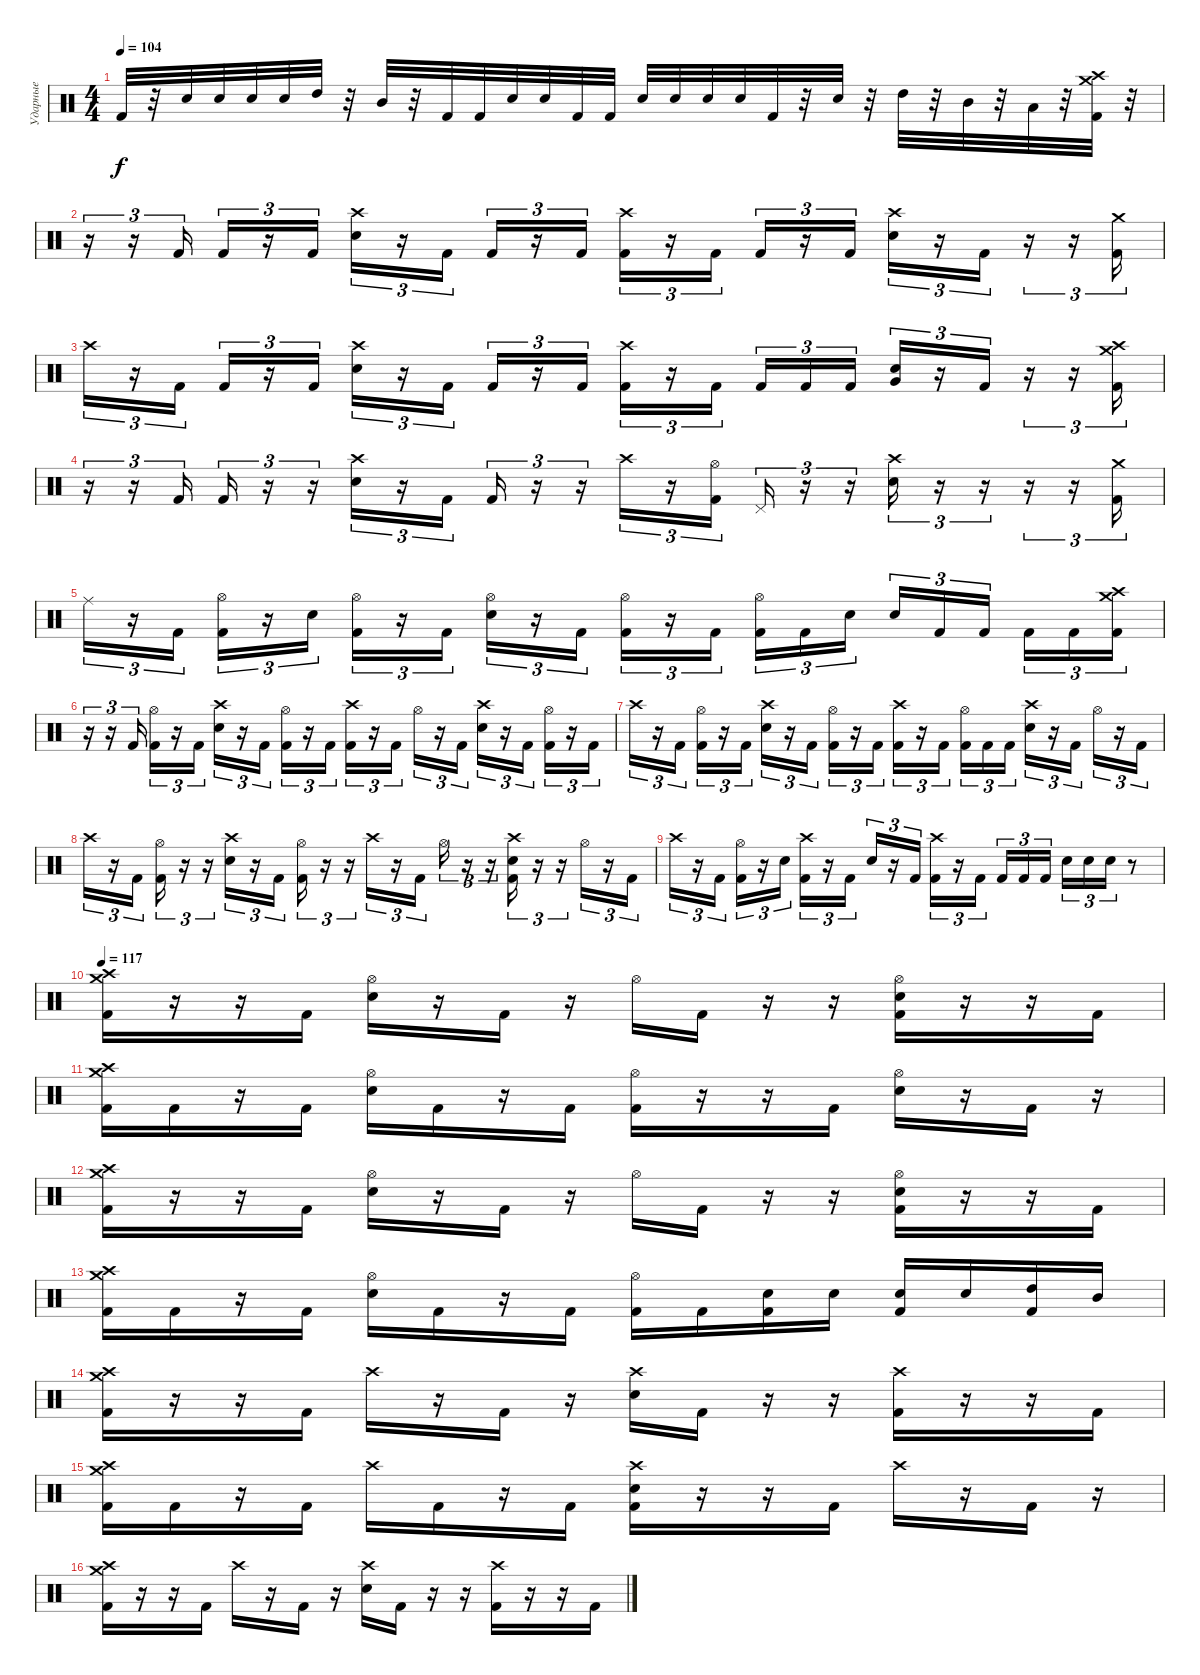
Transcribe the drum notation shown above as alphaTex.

\track ("Ударные" "Ударные") {instrument percussion}
\staff {score}
\articulation defaults
\ts (4 4)
\tempo 104
\clef neutral
\ks c "Kick (hit) 2".32{dy f}
r.32 "Electric Snare (hit)".32 "Electric Snare (hit)".32 "Electric Snare (hit)".32 "Electric Snare (hit)".32 "High Tom (hit)".32 r.32 "Mid Tom (hit)".32 r.32 "Kick (hit) 2".32 "Kick (hit) 2".32 "Electric Snare (hit)".32 "Electric Snare (hit)".32 "Kick (hit) 2".32 "Kick (hit) 2".32 "Electric Snare (hit)".32 "Electric Snare (hit)".32 "Electric Snare (hit)".32 "Electric Snare (hit)".32 "Kick (hit) 2".32 r.32 "Electric Snare (hit)".32 r.32 "High Tom (hit)".32 r.32 "Mid Tom (hit)".32 r.32 "Low Tom (hit)".32 r.32 ("Crash high (hit)" "Crash medium (hit)" "Kick (hit) 2").32 r.32 |
r.16{tu (3 2)} r.16{tu (3 2)} "Kick (hit) 2".16{tu (3 2)} "Kick (hit) 2".16{tu (3 2)} r.16{tu (3 2)} "Kick (hit) 2".16{tu (3 2)} ("Crash high (hit)" "Electric Snare (hit)").16{tu (3 2)} r.16{tu (3 2)} "Kick (hit) 2".16{tu (3 2)} "Kick (hit) 2".16{tu (3 2)} r.16{tu (3 2)} "Kick (hit) 2".16{tu (3 2)} ("Crash high (hit)" "Kick (hit) 2").16{tu (3 2)} r.16{tu (3 2)} "Kick (hit) 2".16{tu (3 2)} "Kick (hit) 2".16{tu (3 2)} r.16{tu (3 2)} "Kick (hit) 2".16{tu (3 2)} ("Crash high (hit)" "Electric Snare (hit)").16{tu (3 2)} r.16{tu (3 2)} "Kick (hit) 2".16{tu (3 2)} r.16{tu (3 2)} r.16{tu (3 2)} ("Crash medium (hit)" "Kick (hit) 2").16{tu (3 2)} |
"Crash high (hit)".16{tu (3 2)} r.16{tu (3 2)} "Kick (hit) 2".16{tu (3 2)} "Kick (hit) 2".16{tu (3 2)} r.16{tu (3 2)} "Kick (hit) 2".16{tu (3 2)} ("Crash high (hit)" "Electric Snare (hit)").16{tu (3 2)} r.16{tu (3 2)} "Kick (hit) 2".16{tu (3 2)} "Kick (hit) 2".16{tu (3 2)} r.16{tu (3 2)} "Kick (hit) 2".16{tu (3 2)} ("Crash high (hit)" "Kick (hit) 2").16{tu (3 2)} r.16{tu (3 2)} "Kick (hit) 2".16{tu (3 2) beam splitsecondary} "Kick (hit) 2".16{tu (3 2)} "Kick (hit) 2".16{tu (3 2)} "Kick (hit) 2".16{tu (3 2)} ("Electric Snare (hit)" "Very Low Tom (hit)").16{tu (3 2)} r.16{tu (3 2)} "Kick (hit) 2".16{tu (3 2)} r.16{tu (3 2)} r.16{tu (3 2)} ("Crash high (hit)" "Crash medium (hit)" "Kick (hit) 2").16{tu (3 2)} |
r.16{tu (3 2)} r.16{tu (3 2)} "Kick (hit) 2".16{tu (3 2)} "Kick (hit) 2".16{tu (3 2)} r.16{tu (3 2)} r.16{tu (3 2)} ("Crash high (hit)" "Electric Snare (hit)").16{tu (3 2)} r.16{tu (3 2)} "Kick (hit) 2".16{tu (3 2)} "Kick (hit) 2".16{tu (3 2)} r.16{tu (3 2)} r.16{tu (3 2)} "Crash high (hit)".16{tu (3 2)} r.16{tu (3 2)} ("Hi-Hat (open)" "Kick (hit) 2").16{tu (3 2)} "Pedal Hi-Hat (hit)".16{tu (3 2)} r.16{tu (3 2)} r.16{tu (3 2)} ("Crash high (hit)" "Electric Snare (hit)").16{tu (3 2)} r.16{tu (3 2)} r.16{tu (3 2)} r.16{tu (3 2)} r.16{tu (3 2)} ("Crash medium (hit)" "Kick (hit) 2").16{tu (3 2)} |
"Ride (middle)".16{tu (3 2)} r.16{tu (3 2)} "Kick (hit) 2".16{tu (3 2)} ("Hi-Hat (open)" "Kick (hit) 2").16{tu (3 2)} r.16{tu (3 2)} "Electric Snare (hit)".16{tu (3 2)} ("Hi-Hat (open)" "Kick (hit) 2").16{tu (3 2)} r.16{tu (3 2)} "Kick (hit) 2".16{tu (3 2)} ("Hi-Hat (open)" "Electric Snare (hit)").16{tu (3 2)} r.16{tu (3 2)} "Kick (hit) 2".16{tu (3 2)} ("Hi-Hat (open)" "Kick (hit) 2").16{tu (3 2)} r.16{tu (3 2)} "Kick (hit) 2".16{tu (3 2) beam splitsecondary} ("Hi-Hat (open)" "Kick (hit) 2").16{tu (3 2)} "Kick (hit) 2".16{tu (3 2)} "Electric Snare (hit)".16{tu (3 2)} "Electric Snare (hit)".16{tu (3 2)} "Kick (hit) 2".16{tu (3 2)} "Kick (hit) 2".16{tu (3 2) beam splitsecondary} "Kick (hit) 2".16{tu (3 2)} "Kick (hit) 2".16{tu (3 2)} ("Crash high (hit)" "Crash medium (hit)" "Kick (hit) 2").16{tu (3 2)} |
r.16{tu (3 2)} r.16{tu (3 2)} "Kick (hit) 2".16{tu (3 2)} ("Hi-Hat (open)" "Kick (hit) 2").16{tu (3 2)} r.16{tu (3 2)} "Kick (hit) 2".16{tu (3 2)} ("Crash high (hit)" "Electric Snare (hit)").16{tu (3 2)} r.16{tu (3 2)} "Kick (hit) 2".16{tu (3 2)} ("Hi-Hat (open)" "Kick (hit) 2").16{tu (3 2)} r.16{tu (3 2)} "Kick (hit) 2".16{tu (3 2)} ("Crash high (hit)" "Kick (hit) 2").16{tu (3 2)} r.16{tu (3 2)} "Kick (hit) 2".16{tu (3 2)} "Hi-Hat (open)".16{tu (3 2)} r.16{tu (3 2)} "Kick (hit) 2".16{tu (3 2)} ("Crash high (hit)" "Electric Snare (hit)").16{tu (3 2)} r.16{tu (3 2)} "Kick (hit) 2".16{tu (3 2)} ("Hi-Hat (open)" "Kick (hit) 2").16{tu (3 2)} r.16{tu (3 2)} "Kick (hit) 2".16{tu (3 2)} |
"Crash high (hit)".16{tu (3 2)} r.16{tu (3 2)} "Kick (hit) 2".16{tu (3 2)} ("Hi-Hat (open)" "Kick (hit) 2").16{tu (3 2)} r.16{tu (3 2)} "Kick (hit) 2".16{tu (3 2)} ("Crash high (hit)" "Electric Snare (hit)").16{tu (3 2)} r.16{tu (3 2)} "Kick (hit) 2".16{tu (3 2)} ("Hi-Hat (open)" "Kick (hit) 2").16{tu (3 2)} r.16{tu (3 2)} "Kick (hit) 2".16{tu (3 2)} ("Crash high (hit)" "Kick (hit) 2").16{tu (3 2)} r.16{tu (3 2)} "Kick (hit) 2".16{tu (3 2) beam splitsecondary} ("Hi-Hat (open)" "Kick (hit) 2").16{tu (3 2)} "Kick (hit) 2".16{tu (3 2)} "Kick (hit) 2".16{tu (3 2)} ("Crash high (hit)" "Electric Snare (hit)").16{tu (3 2)} r.16{tu (3 2)} "Kick (hit) 2".16{tu (3 2)} "Hi-Hat (open)".16{tu (3 2)} r.16{tu (3 2)} "Kick (hit) 2".16{tu (3 2)} |
"Crash high (hit)".16{tu (3 2)} r.16{tu (3 2)} "Kick (hit) 2".16{tu (3 2)} ("Hi-Hat (open)" "Kick (hit) 2").16{tu (3 2)} r.16{tu (3 2)} r.16{tu (3 2)} ("Crash high (hit)" "Electric Snare (hit)").16{tu (3 2)} r.16{tu (3 2)} "Kick (hit) 2".16{tu (3 2)} ("Hi-Hat (open)" "Kick (hit) 2").16{tu (3 2)} r.16{tu (3 2)} r.16{tu (3 2)} "Crash high (hit)".16{tu (3 2)} r.16{tu (3 2)} "Kick (hit) 2".16{tu (3 2)} "Hi-Hat (open)".16{tu (3 2)} r.16{tu (3 2)} r.16{tu (3 2)} ("Crash high (hit)" "Electric Snare (hit)" "Kick (hit) 2").16{tu (3 2)} r.16{tu (3 2)} r.16{tu (3 2)} "Hi-Hat (open)".16{tu (3 2)} r.16{tu (3 2)} "Kick (hit) 2".16{tu (3 2)} |
"Crash high (hit)".16{tu (3 2)} r.16{tu (3 2)} "Kick (hit) 2".16{tu (3 2)} ("Hi-Hat (open)" "Kick (hit) 2").16{tu (3 2)} r.16{tu (3 2)} "Electric Snare (hit)".16{tu (3 2)} ("Crash high (hit)" "Kick (hit) 2").16{tu (3 2)} r.16{tu (3 2)} "Kick (hit) 2".16{tu (3 2)} "Electric Snare (hit)".16{tu (3 2)} r.16{tu (3 2)} "Kick (hit) 2".16{tu (3 2)} ("Crash high (hit)" "Kick (hit) 2").16{tu (3 2)} r.16{tu (3 2)} "Kick (hit) 2".16{tu (3 2) beam splitsecondary} "Kick (hit) 2".16{tu (3 2)} "Kick (hit) 2".16{tu (3 2)} "Kick (hit) 2".16{tu (3 2)} "Electric Snare (hit)".16{tu (3 2)} "Electric Snare (hit)".16{tu (3 2)} "Electric Snare (hit)".16{tu (3 2)} r.8 |
\tempo 117
("Crash medium (hit)" "Crash high (hit)" "Kick (hit) 2").16 r.16 r.16 "Kick (hit) 2".16 ("Hi-Hat (open)" "Electric Snare (hit)").16 r.16 "Kick (hit) 2".16 r.16 "Hi-Hat (open)".16 "Kick (hit) 2".16 r.16 r.16 ("Hi-Hat (open)" "Electric Snare (hit)" "Kick (hit) 2").16 r.16 r.16 "Kick (hit) 2".16 |
("Crash medium (hit)" "Crash high (hit)" "Kick (hit) 2").16 "Kick (hit) 2".16 r.16 "Kick (hit) 2".16 ("Hi-Hat (open)" "Electric Snare (hit)").16 "Kick (hit) 2".16 r.16 "Kick (hit) 2".16 ("Hi-Hat (open)" "Kick (hit) 2").16 r.16 r.16 "Kick (hit) 2".16 ("Hi-Hat (open)" "Electric Snare (hit)").16 r.16 "Kick (hit) 2".16 r.16 |
("Crash medium (hit)" "Crash high (hit)" "Kick (hit) 2").16 r.16 r.16 "Kick (hit) 2".16 ("Hi-Hat (open)" "Electric Snare (hit)").16 r.16 "Kick (hit) 2".16 r.16 "Hi-Hat (open)".16 "Kick (hit) 2".16 r.16 r.16 ("Hi-Hat (open)" "Electric Snare (hit)" "Kick (hit) 2").16 r.16 r.16 "Kick (hit) 2".16 |
("Crash medium (hit)" "Crash high (hit)" "Kick (hit) 2").16 "Kick (hit) 2".16 r.16 "Kick (hit) 2".16 ("Hi-Hat (open)" "Electric Snare (hit)").16 "Kick (hit) 2".16 r.16 "Kick (hit) 2".16 ("Hi-Hat (open)" "Kick (hit) 2").16 "Kick (hit) 2".16 ("Electric Snare (hit)" "Kick (hit) 2").16 "Electric Snare (hit)".16 ("Electric Snare (hit)" "Kick (hit) 2").16 "Electric Snare (hit)".16 ("High Tom (hit)" "Kick (hit) 2").16 "Mid Tom (hit)".16 |
("Crash medium (hit)" "Crash high (hit)" "Kick (hit) 2").16 r.16 r.16 "Kick (hit) 2".16 "Crash high (hit)".16 r.16 "Kick (hit) 2".16 r.16 ("Crash high (hit)" "Electric Snare (hit)").16 "Kick (hit) 2".16 r.16 r.16 ("Crash high (hit)" "Kick (hit) 2").16 r.16 r.16 "Kick (hit) 2".16 |
("Crash medium (hit)" "Crash high (hit)" "Kick (hit) 2").16 "Kick (hit) 2".16 r.16 "Kick (hit) 2".16 "Crash high (hit)".16 "Kick (hit) 2".16 r.16 "Kick (hit) 2".16 ("Crash high (hit)" "Electric Snare (hit)" "Kick (hit) 2").16 r.16 r.16 "Kick (hit) 2".16 "Crash high (hit)".16 r.16 "Kick (hit) 2".16 r.16 |
("Crash medium (hit)" "Crash high (hit)" "Kick (hit) 2").16 r.16 r.16 "Kick (hit) 2".16 "Crash high (hit)".16 r.16 "Kick (hit) 2".16 r.16 ("Crash high (hit)" "Electric Snare (hit)").16 "Kick (hit) 2".16 r.16 r.16 ("Crash high (hit)" "Kick (hit) 2").16 r.16 r.16 "Kick (hit) 2".16
